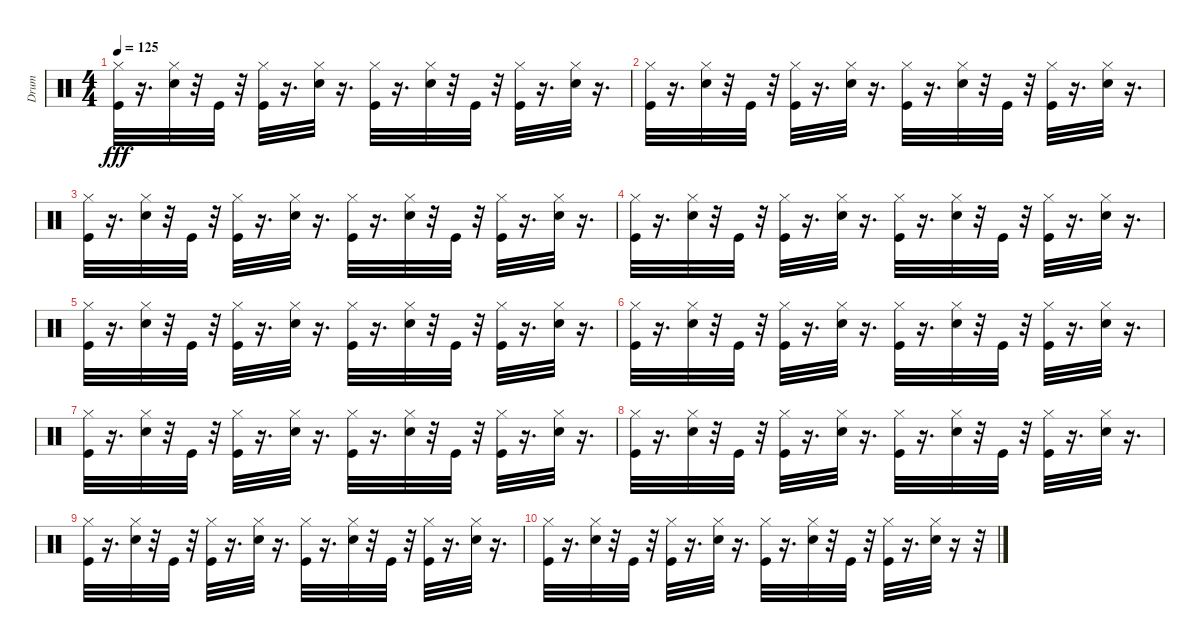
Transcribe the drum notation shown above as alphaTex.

\track ("Drum" "Drum") {instrument percussion}
\staff {score}
\articulation defaults
\ts (4 4)
\tempo 125
\clef neutral
\ks c
("Hi-Hat (closed)" "Kick (hit)").32{dy fff} r.16{d} ("Hi-Hat (closed)" "Snare (hit) 2").32 r.32 "Kick (hit)".32 r.32 ("Hi-Hat (closed)" "Kick (hit)").32 r.16{d} ("Snare (hit) 2" "Hi-Hat (closed)").32 r.16{d} ("Kick (hit)" "Hi-Hat (closed)").32 r.16{d} ("Snare (hit) 2" "Hi-Hat (closed)").32 r.32 "Kick (hit)".32 r.32 ("Kick (hit)" "Hi-Hat (closed)").32 r.16{d} ("Snare (hit) 2" "Hi-Hat (closed)").32 r.16{d} |
("Hi-Hat (closed)" "Kick (hit)").32 r.16{d} ("Hi-Hat (closed)" "Snare (hit) 2").32 r.32 "Kick (hit)".32 r.32 ("Hi-Hat (closed)" "Kick (hit)").32 r.16{d} ("Snare (hit) 2" "Hi-Hat (closed)").32 r.16{d} ("Kick (hit)" "Hi-Hat (closed)").32 r.16{d} ("Snare (hit) 2" "Hi-Hat (closed)").32 r.32 "Kick (hit)".32 r.32 ("Kick (hit)" "Hi-Hat (closed)").32 r.16{d} ("Snare (hit) 2" "Hi-Hat (closed)").32 r.16{d} |
("Hi-Hat (closed)" "Kick (hit)").32 r.16{d} ("Hi-Hat (closed)" "Snare (hit) 2").32 r.32 "Kick (hit)".32 r.32 ("Hi-Hat (closed)" "Kick (hit)").32 r.16{d} ("Snare (hit) 2" "Hi-Hat (closed)").32 r.16{d} ("Kick (hit)" "Hi-Hat (closed)").32 r.16{d} ("Snare (hit) 2" "Hi-Hat (closed)").32 r.32 "Kick (hit)".32 r.32 ("Kick (hit)" "Hi-Hat (closed)").32 r.16{d} ("Snare (hit) 2" "Hi-Hat (closed)").32 r.16{d} |
("Hi-Hat (closed)" "Kick (hit)").32 r.16{d} ("Hi-Hat (closed)" "Snare (hit) 2").32 r.32 "Kick (hit)".32 r.32 ("Hi-Hat (closed)" "Kick (hit)").32 r.16{d} ("Snare (hit) 2" "Hi-Hat (closed)").32 r.16{d} ("Kick (hit)" "Hi-Hat (closed)").32 r.16{d} ("Snare (hit) 2" "Hi-Hat (closed)").32 r.32 "Kick (hit)".32 r.32 ("Kick (hit)" "Hi-Hat (closed)").32 r.16{d} ("Snare (hit) 2" "Hi-Hat (closed)").32 r.16{d} |
("Hi-Hat (closed)" "Kick (hit)").32 r.16{d} ("Hi-Hat (closed)" "Snare (hit) 2").32 r.32 "Kick (hit)".32 r.32 ("Hi-Hat (closed)" "Kick (hit)").32 r.16{d} ("Snare (hit) 2" "Hi-Hat (closed)").32 r.16{d} ("Kick (hit)" "Hi-Hat (closed)").32 r.16{d} ("Snare (hit) 2" "Hi-Hat (closed)").32 r.32 "Kick (hit)".32 r.32 ("Kick (hit)" "Hi-Hat (closed)").32 r.16{d} ("Snare (hit) 2" "Hi-Hat (closed)").32 r.16{d} |
("Hi-Hat (closed)" "Kick (hit)").32 r.16{d} ("Hi-Hat (closed)" "Snare (hit) 2").32 r.32 "Kick (hit)".32 r.32 ("Hi-Hat (closed)" "Kick (hit)").32 r.16{d} ("Snare (hit) 2" "Hi-Hat (closed)").32 r.16{d} ("Kick (hit)" "Hi-Hat (closed)").32 r.16{d} ("Snare (hit) 2" "Hi-Hat (closed)").32 r.32 "Kick (hit)".32 r.32 ("Kick (hit)" "Hi-Hat (closed)").32 r.16{d} ("Snare (hit) 2" "Hi-Hat (closed)").32 r.16{d} |
("Hi-Hat (closed)" "Kick (hit)").32 r.16{d} ("Hi-Hat (closed)" "Snare (hit) 2").32 r.32 "Kick (hit)".32 r.32 ("Hi-Hat (closed)" "Kick (hit)").32 r.16{d} ("Snare (hit) 2" "Hi-Hat (closed)").32 r.16{d} ("Kick (hit)" "Hi-Hat (closed)").32 r.16{d} ("Snare (hit) 2" "Hi-Hat (closed)").32 r.32 "Kick (hit)".32 r.32 ("Kick (hit)" "Hi-Hat (closed)").32 r.16{d} ("Snare (hit) 2" "Hi-Hat (closed)").32 r.16{d} |
("Hi-Hat (closed)" "Kick (hit)").32 r.16{d} ("Hi-Hat (closed)" "Snare (hit) 2").32 r.32 "Kick (hit)".32 r.32 ("Hi-Hat (closed)" "Kick (hit)").32 r.16{d} ("Snare (hit) 2" "Hi-Hat (closed)").32 r.16{d} ("Kick (hit)" "Hi-Hat (closed)").32 r.16{d} ("Snare (hit) 2" "Hi-Hat (closed)").32 r.32 "Kick (hit)".32 r.32 ("Kick (hit)" "Hi-Hat (closed)").32 r.16{d} ("Snare (hit) 2" "Hi-Hat (closed)").32 r.16{d} |
("Hi-Hat (closed)" "Kick (hit)").32 r.16{d} ("Hi-Hat (closed)" "Snare (hit) 2").32 r.32 "Kick (hit)".32 r.32 ("Hi-Hat (closed)" "Kick (hit)").32 r.16{d} ("Snare (hit) 2" "Hi-Hat (closed)").32 r.16{d} ("Kick (hit)" "Hi-Hat (closed)").32 r.16{d} ("Snare (hit) 2" "Hi-Hat (closed)").32 r.32 "Kick (hit)".32 r.32 ("Kick (hit)" "Hi-Hat (closed)").32 r.16{d} ("Snare (hit) 2" "Hi-Hat (closed)").32 r.16{d} |
("Hi-Hat (closed)" "Kick (hit)").32 r.16{d} ("Hi-Hat (closed)" "Snare (hit) 2").32 r.32 "Kick (hit)".32 r.32 ("Hi-Hat (closed)" "Kick (hit)").32 r.16{d} ("Snare (hit) 2" "Hi-Hat (closed)").32 r.16{d} ("Kick (hit)" "Hi-Hat (closed)").32 r.16{d} ("Snare (hit) 2" "Hi-Hat (closed)").32 r.32 "Kick (hit)".32 r.32 ("Kick (hit)" "Hi-Hat (closed)").32 r.16{d} ("Snare (hit) 2" "Hi-Hat (closed)").32 r.16 r.32
